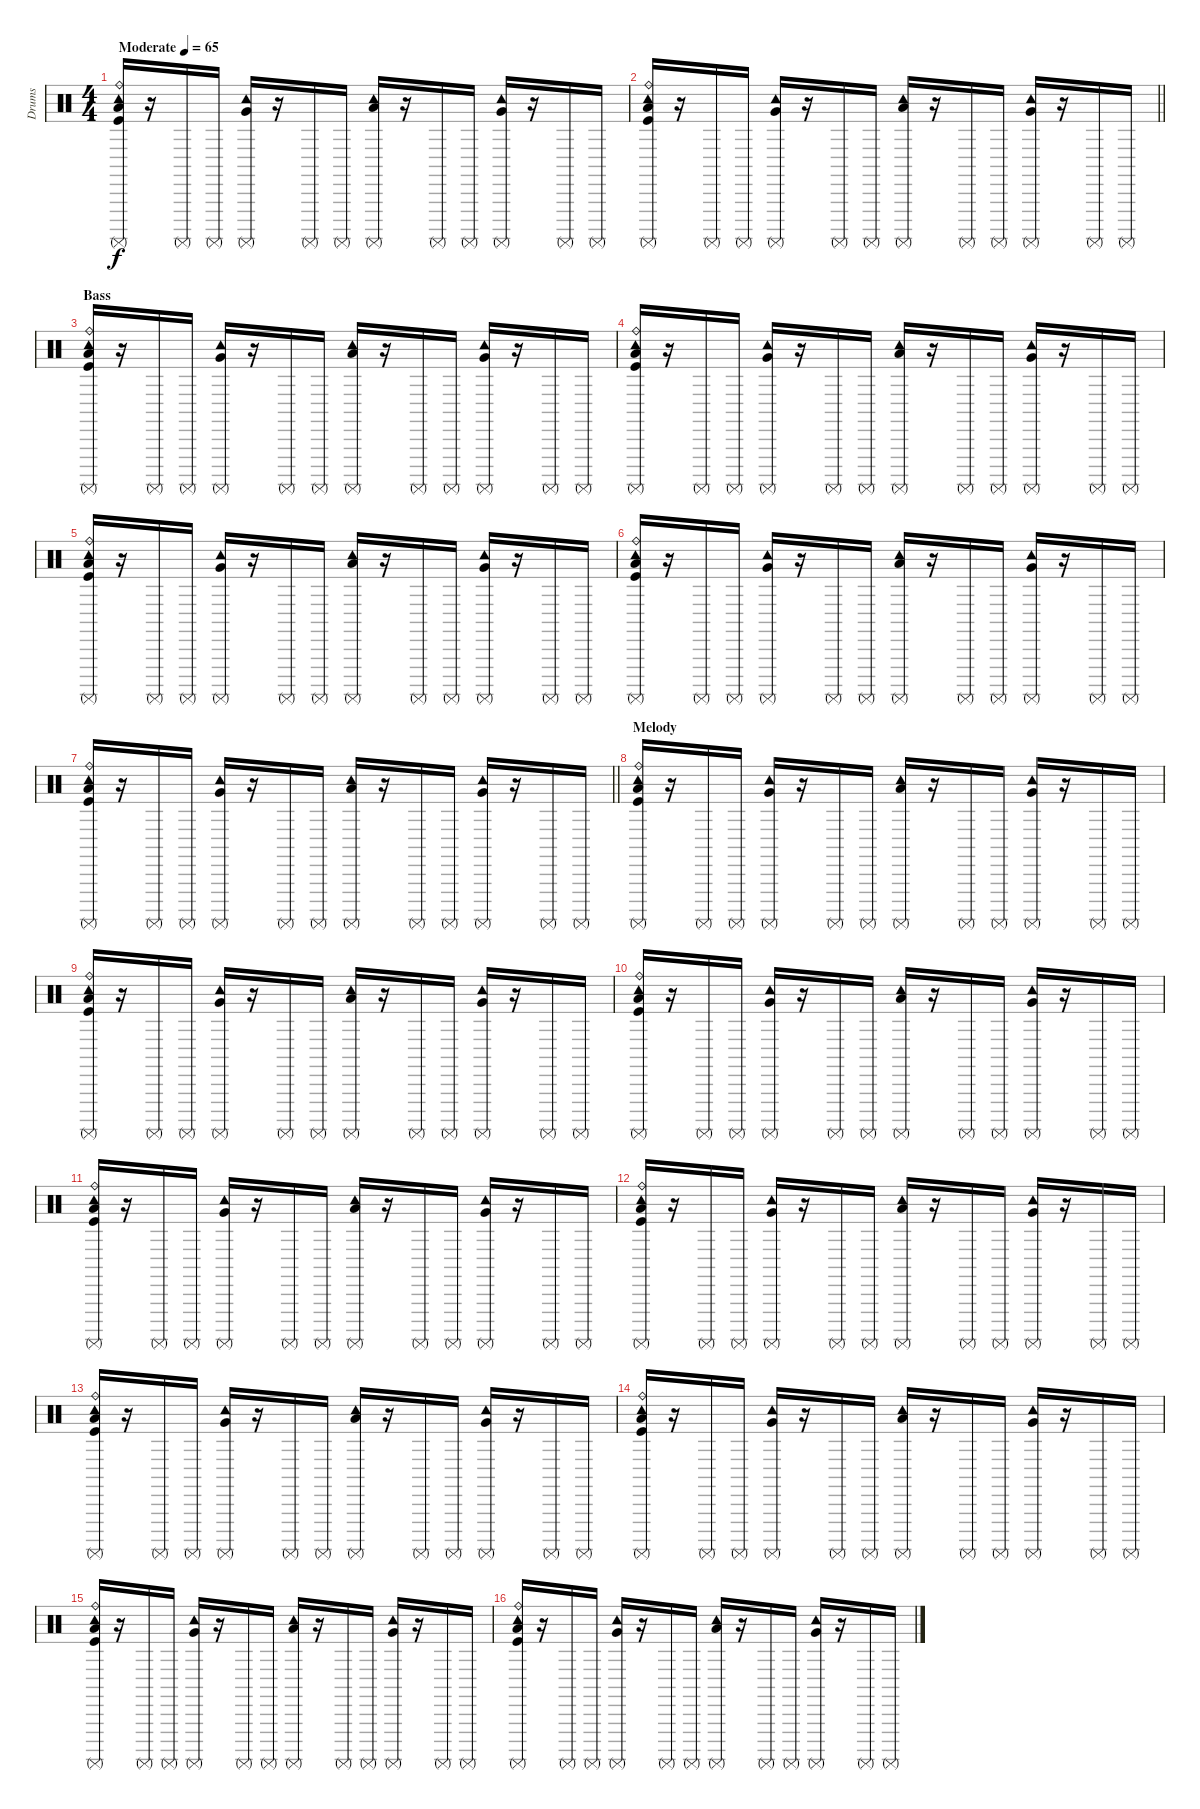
\track ("Drums" "Drums") {instrument percussion}
\staff {score}
\articulation defaults
\ts (4 4)
\tempo (65 "Moderate")
\clef neutral
\ks c
("Ride (bell)" "Tambourine (hit)" "Low Floor Tom (hit)" "Surdo (mute)" "Kick (hit)").16{dy f} r.16 "Surdo (mute)".16 "Surdo (mute)".16 ("Tambourine (hit)" "Very Low Tom (hit)" "Surdo (mute)").16 r.16 "Surdo (mute)".16 "Surdo (mute)".16 ("Tambourine (hit)" "Low Floor Tom (hit)" "Surdo (mute)").16 r.16 "Surdo (mute)".16 "Surdo (mute)".16 ("Tambourine (hit)" "Very Low Tom (hit)" "Surdo (mute)").16 r.16 "Surdo (mute)".16 "Surdo (mute)".16 |
\barLineRight lightlight
("Ride (bell)" "Tambourine (hit)" "Low Floor Tom (hit)" "Surdo (mute)" "Kick (hit)").16 r.16 "Surdo (mute)".16 "Surdo (mute)".16 ("Tambourine (hit)" "Very Low Tom (hit)" "Surdo (mute)").16 r.16 "Surdo (mute)".16 "Surdo (mute)".16 ("Tambourine (hit)" "Low Floor Tom (hit)" "Surdo (mute)").16 r.16 "Surdo (mute)".16 "Surdo (mute)".16 ("Tambourine (hit)" "Very Low Tom (hit)" "Surdo (mute)").16 r.16 "Surdo (mute)".16 "Surdo (mute)".16 |
\section ("" "Bass")
("Ride (bell)" "Tambourine (hit)" "Low Floor Tom (hit)" "Surdo (mute)" "Kick (hit)").16 r.16 "Surdo (mute)".16 "Surdo (mute)".16 ("Tambourine (hit)" "Very Low Tom (hit)" "Surdo (mute)").16 r.16 "Surdo (mute)".16 "Surdo (mute)".16 ("Tambourine (hit)" "Low Floor Tom (hit)" "Surdo (mute)").16 r.16 "Surdo (mute)".16 "Surdo (mute)".16 ("Tambourine (hit)" "Very Low Tom (hit)" "Surdo (mute)").16 r.16 "Surdo (mute)".16 "Surdo (mute)".16 |
("Ride (bell)" "Tambourine (hit)" "Low Floor Tom (hit)" "Surdo (mute)" "Kick (hit)").16 r.16 "Surdo (mute)".16 "Surdo (mute)".16 ("Tambourine (hit)" "Very Low Tom (hit)" "Surdo (mute)").16 r.16 "Surdo (mute)".16 "Surdo (mute)".16 ("Tambourine (hit)" "Low Floor Tom (hit)" "Surdo (mute)").16 r.16 "Surdo (mute)".16 "Surdo (mute)".16 ("Tambourine (hit)" "Very Low Tom (hit)" "Surdo (mute)").16 r.16 "Surdo (mute)".16 "Surdo (mute)".16 |
("Ride (bell)" "Tambourine (hit)" "Low Floor Tom (hit)" "Surdo (mute)" "Kick (hit)").16 r.16 "Surdo (mute)".16 "Surdo (mute)".16 ("Tambourine (hit)" "Very Low Tom (hit)" "Surdo (mute)").16 r.16 "Surdo (mute)".16 "Surdo (mute)".16 ("Tambourine (hit)" "Low Floor Tom (hit)" "Surdo (mute)").16 r.16 "Surdo (mute)".16 "Surdo (mute)".16 ("Tambourine (hit)" "Very Low Tom (hit)" "Surdo (mute)").16 r.16 "Surdo (mute)".16 "Surdo (mute)".16 |
("Ride (bell)" "Tambourine (hit)" "Low Floor Tom (hit)" "Surdo (mute)" "Kick (hit)").16 r.16 "Surdo (mute)".16 "Surdo (mute)".16 ("Tambourine (hit)" "Very Low Tom (hit)" "Surdo (mute)").16 r.16 "Surdo (mute)".16 "Surdo (mute)".16 ("Tambourine (hit)" "Low Floor Tom (hit)" "Surdo (mute)").16 r.16 "Surdo (mute)".16 "Surdo (mute)".16 ("Tambourine (hit)" "Very Low Tom (hit)" "Surdo (mute)").16 r.16 "Surdo (mute)".16 "Surdo (mute)".16 |
\barLineRight lightlight
("Ride (bell)" "Tambourine (hit)" "Low Floor Tom (hit)" "Surdo (mute)" "Kick (hit)").16 r.16 "Surdo (mute)".16 "Surdo (mute)".16 ("Tambourine (hit)" "Very Low Tom (hit)" "Surdo (mute)").16 r.16 "Surdo (mute)".16 "Surdo (mute)".16 ("Tambourine (hit)" "Low Floor Tom (hit)" "Surdo (mute)").16 r.16 "Surdo (mute)".16 "Surdo (mute)".16 ("Tambourine (hit)" "Very Low Tom (hit)" "Surdo (mute)").16 r.16 "Surdo (mute)".16 "Surdo (mute)".16 |
\section ("" "Melody")
("Ride (bell)" "Tambourine (hit)" "Low Floor Tom (hit)" "Surdo (mute)" "Kick (hit)").16 r.16 "Surdo (mute)".16 "Surdo (mute)".16 ("Tambourine (hit)" "Very Low Tom (hit)" "Surdo (mute)").16 r.16 "Surdo (mute)".16 "Surdo (mute)".16 ("Tambourine (hit)" "Low Floor Tom (hit)" "Surdo (mute)").16 r.16 "Surdo (mute)".16 "Surdo (mute)".16 ("Tambourine (hit)" "Very Low Tom (hit)" "Surdo (mute)").16 r.16 "Surdo (mute)".16 "Surdo (mute)".16 |
("Ride (bell)" "Tambourine (hit)" "Low Floor Tom (hit)" "Surdo (mute)" "Kick (hit)").16 r.16 "Surdo (mute)".16 "Surdo (mute)".16 ("Tambourine (hit)" "Very Low Tom (hit)" "Surdo (mute)").16 r.16 "Surdo (mute)".16 "Surdo (mute)".16 ("Tambourine (hit)" "Low Floor Tom (hit)" "Surdo (mute)").16 r.16 "Surdo (mute)".16 "Surdo (mute)".16 ("Tambourine (hit)" "Very Low Tom (hit)" "Surdo (mute)").16 r.16 "Surdo (mute)".16 "Surdo (mute)".16 |
("Ride (bell)" "Tambourine (hit)" "Low Floor Tom (hit)" "Surdo (mute)" "Kick (hit)").16 r.16 "Surdo (mute)".16 "Surdo (mute)".16 ("Tambourine (hit)" "Very Low Tom (hit)" "Surdo (mute)").16 r.16 "Surdo (mute)".16 "Surdo (mute)".16 ("Tambourine (hit)" "Low Floor Tom (hit)" "Surdo (mute)").16 r.16 "Surdo (mute)".16 "Surdo (mute)".16 ("Tambourine (hit)" "Very Low Tom (hit)" "Surdo (mute)").16 r.16 "Surdo (mute)".16 "Surdo (mute)".16 |
("Ride (bell)" "Tambourine (hit)" "Low Floor Tom (hit)" "Surdo (mute)" "Kick (hit)").16 r.16 "Surdo (mute)".16 "Surdo (mute)".16 ("Tambourine (hit)" "Very Low Tom (hit)" "Surdo (mute)").16 r.16 "Surdo (mute)".16 "Surdo (mute)".16 ("Tambourine (hit)" "Low Floor Tom (hit)" "Surdo (mute)").16 r.16 "Surdo (mute)".16 "Surdo (mute)".16 ("Tambourine (hit)" "Very Low Tom (hit)" "Surdo (mute)").16 r.16 "Surdo (mute)".16 "Surdo (mute)".16 |
("Ride (bell)" "Tambourine (hit)" "Low Floor Tom (hit)" "Surdo (mute)" "Kick (hit)").16 r.16 "Surdo (mute)".16 "Surdo (mute)".16 ("Tambourine (hit)" "Very Low Tom (hit)" "Surdo (mute)").16 r.16 "Surdo (mute)".16 "Surdo (mute)".16 ("Tambourine (hit)" "Low Floor Tom (hit)" "Surdo (mute)").16 r.16 "Surdo (mute)".16 "Surdo (mute)".16 ("Tambourine (hit)" "Very Low Tom (hit)" "Surdo (mute)").16 r.16 "Surdo (mute)".16 "Surdo (mute)".16 |
("Ride (bell)" "Tambourine (hit)" "Low Floor Tom (hit)" "Surdo (mute)" "Kick (hit)").16 r.16 "Surdo (mute)".16 "Surdo (mute)".16 ("Tambourine (hit)" "Very Low Tom (hit)" "Surdo (mute)").16 r.16 "Surdo (mute)".16 "Surdo (mute)".16 ("Tambourine (hit)" "Low Floor Tom (hit)" "Surdo (mute)").16 r.16 "Surdo (mute)".16 "Surdo (mute)".16 ("Tambourine (hit)" "Very Low Tom (hit)" "Surdo (mute)").16 r.16 "Surdo (mute)".16 "Surdo (mute)".16 |
("Ride (bell)" "Tambourine (hit)" "Low Floor Tom (hit)" "Surdo (mute)" "Kick (hit)").16 r.16 "Surdo (mute)".16 "Surdo (mute)".16 ("Tambourine (hit)" "Very Low Tom (hit)" "Surdo (mute)").16 r.16 "Surdo (mute)".16 "Surdo (mute)".16 ("Tambourine (hit)" "Low Floor Tom (hit)" "Surdo (mute)").16 r.16 "Surdo (mute)".16 "Surdo (mute)".16 ("Tambourine (hit)" "Very Low Tom (hit)" "Surdo (mute)").16 r.16 "Surdo (mute)".16 "Surdo (mute)".16 |
("Ride (bell)" "Tambourine (hit)" "Low Floor Tom (hit)" "Surdo (mute)" "Kick (hit)").16 r.16 "Surdo (mute)".16 "Surdo (mute)".16 ("Tambourine (hit)" "Very Low Tom (hit)" "Surdo (mute)").16 r.16 "Surdo (mute)".16 "Surdo (mute)".16 ("Tambourine (hit)" "Low Floor Tom (hit)" "Surdo (mute)").16 r.16 "Surdo (mute)".16 "Surdo (mute)".16 ("Tambourine (hit)" "Very Low Tom (hit)" "Surdo (mute)").16 r.16 "Surdo (mute)".16 "Surdo (mute)".16 |
("Ride (bell)" "Tambourine (hit)" "Low Floor Tom (hit)" "Surdo (mute)" "Kick (hit)").16 r.16 "Surdo (mute)".16 "Surdo (mute)".16 ("Tambourine (hit)" "Very Low Tom (hit)" "Surdo (mute)").16 r.16 "Surdo (mute)".16 "Surdo (mute)".16 ("Tambourine (hit)" "Low Floor Tom (hit)" "Surdo (mute)").16 r.16 "Surdo (mute)".16 "Surdo (mute)".16 ("Tambourine (hit)" "Very Low Tom (hit)" "Surdo (mute)").16 r.16 "Surdo (mute)".16 "Surdo (mute)".16
